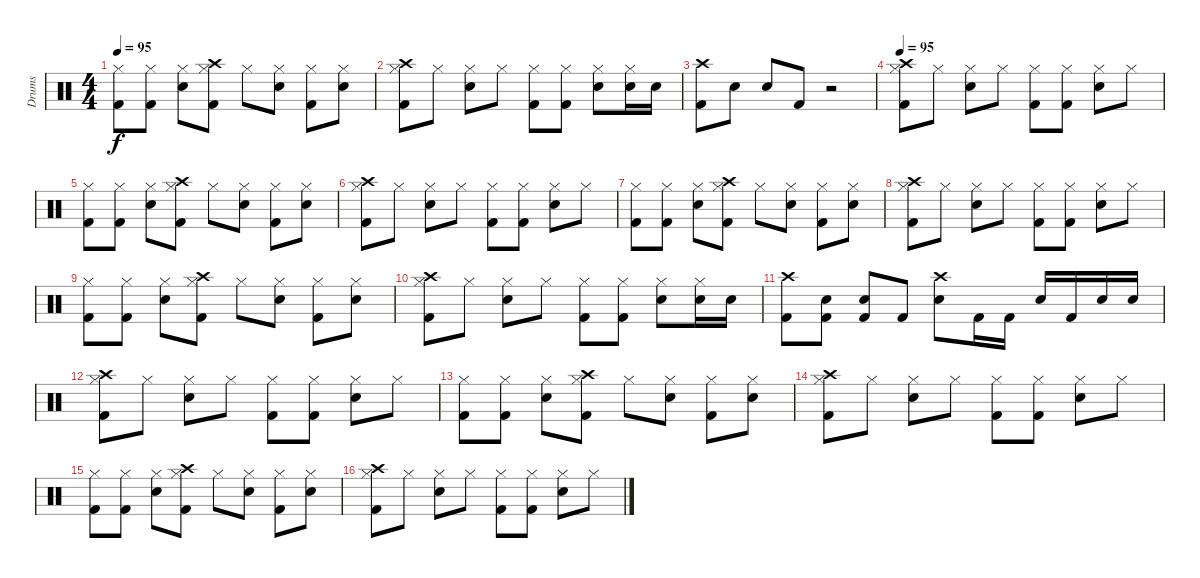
\track ("Drums" "Drums") {instrument percussion}
\staff {score}
\articulation defaults
\ts (4 4)
\tempo 95
\clef neutral
\ks c
("Hi-Hat (closed)" "Kick (hit) 2").8{dy f} ("Hi-Hat (closed)" "Kick (hit) 2").8 ("Hi-Hat (closed)" "Electric Snare (hit)").8 ("Crash high (hit)" "Hi-Hat (closed)" "Kick (hit) 2").8 "Hi-Hat (closed)".8 ("Hi-Hat (closed)" "Electric Snare (hit)").8 ("Hi-Hat (closed)" "Kick (hit) 2").8 ("Hi-Hat (closed)" "Electric Snare (hit)").8 |
("Crash high (hit)" "Hi-Hat (closed)" "Kick (hit) 2").8 "Hi-Hat (closed)".8 ("Hi-Hat (closed)" "Electric Snare (hit)").8 "Hi-Hat (closed)".8 ("Hi-Hat (closed)" "Kick (hit) 2").8 ("Hi-Hat (closed)" "Kick (hit) 2").8 ("Hi-Hat (closed)" "Electric Snare (hit)").8 ("Electric Snare (hit)" "Hi-Hat (closed)").16 "Electric Snare (hit)".16 |
("Crash high (hit)" "Kick (hit) 2").8 "Electric Snare (hit)".8 "Electric Snare (hit)".8 "Kick (hit) 2".8 r.2 |
\tempo 95
("Crash high (hit)" "Hi-Hat (closed)" "Kick (hit) 2").8 "Hi-Hat (closed)".8 ("Hi-Hat (closed)" "Electric Snare (hit)").8 "Hi-Hat (closed)".8 ("Hi-Hat (closed)" "Kick (hit) 2").8 ("Hi-Hat (closed)" "Kick (hit) 2").8 ("Hi-Hat (closed)" "Electric Snare (hit)").8 "Hi-Hat (closed)".8 |
("Hi-Hat (closed)" "Kick (hit) 2").8 ("Hi-Hat (closed)" "Kick (hit) 2").8 ("Hi-Hat (closed)" "Electric Snare (hit)").8 ("Crash high (hit)" "Hi-Hat (closed)" "Kick (hit) 2").8 "Hi-Hat (closed)".8 ("Hi-Hat (closed)" "Electric Snare (hit)").8 ("Hi-Hat (closed)" "Kick (hit) 2").8 ("Hi-Hat (closed)" "Electric Snare (hit)").8 |
("Crash high (hit)" "Hi-Hat (closed)" "Kick (hit) 2").8 "Hi-Hat (closed)".8 ("Hi-Hat (closed)" "Electric Snare (hit)").8 "Hi-Hat (closed)".8 ("Hi-Hat (closed)" "Kick (hit) 2").8 ("Hi-Hat (closed)" "Kick (hit) 2").8 ("Hi-Hat (closed)" "Electric Snare (hit)").8 "Hi-Hat (closed)".8 |
("Hi-Hat (closed)" "Kick (hit) 2").8 ("Hi-Hat (closed)" "Kick (hit) 2").8 ("Hi-Hat (closed)" "Electric Snare (hit)").8 ("Crash high (hit)" "Hi-Hat (closed)" "Kick (hit) 2").8 "Hi-Hat (closed)".8 ("Hi-Hat (closed)" "Electric Snare (hit)").8 ("Hi-Hat (closed)" "Kick (hit) 2").8 ("Hi-Hat (closed)" "Electric Snare (hit)").8 |
("Crash high (hit)" "Hi-Hat (closed)" "Kick (hit) 2").8 "Hi-Hat (closed)".8 ("Hi-Hat (closed)" "Electric Snare (hit)").8 "Hi-Hat (closed)".8 ("Hi-Hat (closed)" "Kick (hit) 2").8 ("Hi-Hat (closed)" "Kick (hit) 2").8 ("Hi-Hat (closed)" "Electric Snare (hit)").8 "Hi-Hat (closed)".8 |
("Hi-Hat (closed)" "Kick (hit) 2").8 ("Hi-Hat (closed)" "Kick (hit) 2").8 ("Hi-Hat (closed)" "Electric Snare (hit)").8 ("Crash high (hit)" "Hi-Hat (closed)" "Kick (hit) 2").8 "Hi-Hat (closed)".8 ("Hi-Hat (closed)" "Electric Snare (hit)").8 ("Hi-Hat (closed)" "Kick (hit) 2").8 ("Hi-Hat (closed)" "Electric Snare (hit)").8 |
("Crash high (hit)" "Hi-Hat (closed)" "Kick (hit) 2").8 "Hi-Hat (closed)".8 ("Hi-Hat (closed)" "Electric Snare (hit)").8 "Hi-Hat (closed)".8 ("Hi-Hat (closed)" "Kick (hit) 2").8 ("Hi-Hat (closed)" "Kick (hit) 2").8 ("Hi-Hat (closed)" "Electric Snare (hit)").8 ("Electric Snare (hit)" "Hi-Hat (closed)").16 "Electric Snare (hit)".16 |
("Crash high (hit)" "Kick (hit) 2").8 ("Electric Snare (hit)" "Kick (hit) 2").8 ("Electric Snare (hit)" "Kick (hit) 2").8 "Kick (hit) 2".8 ("Crash high (hit)" "Electric Snare (hit)").8 "Kick (hit) 2".16 "Kick (hit) 2".16 "Electric Snare (hit)".16 "Kick (hit) 2".16 "Electric Snare (hit)".16 "Electric Snare (hit)".16 |
("Crash high (hit)" "Hi-Hat (closed)" "Kick (hit) 2").8 "Hi-Hat (closed)".8 ("Hi-Hat (closed)" "Electric Snare (hit)").8 "Hi-Hat (closed)".8 ("Hi-Hat (closed)" "Kick (hit) 2").8 ("Hi-Hat (closed)" "Kick (hit) 2").8 ("Hi-Hat (closed)" "Electric Snare (hit)").8 "Hi-Hat (closed)".8 |
("Hi-Hat (closed)" "Kick (hit) 2").8 ("Hi-Hat (closed)" "Kick (hit) 2").8 ("Hi-Hat (closed)" "Electric Snare (hit)").8 ("Crash high (hit)" "Hi-Hat (closed)" "Kick (hit) 2").8 "Hi-Hat (closed)".8 ("Hi-Hat (closed)" "Electric Snare (hit)").8 ("Hi-Hat (closed)" "Kick (hit) 2").8 ("Hi-Hat (closed)" "Electric Snare (hit)").8 |
("Crash high (hit)" "Hi-Hat (closed)" "Kick (hit) 2").8 "Hi-Hat (closed)".8 ("Hi-Hat (closed)" "Electric Snare (hit)").8 "Hi-Hat (closed)".8 ("Hi-Hat (closed)" "Kick (hit) 2").8 ("Hi-Hat (closed)" "Kick (hit) 2").8 ("Hi-Hat (closed)" "Electric Snare (hit)").8 "Hi-Hat (closed)".8 |
("Hi-Hat (closed)" "Kick (hit) 2").8 ("Hi-Hat (closed)" "Kick (hit) 2").8 ("Hi-Hat (closed)" "Electric Snare (hit)").8 ("Crash high (hit)" "Hi-Hat (closed)" "Kick (hit) 2").8 "Hi-Hat (closed)".8 ("Hi-Hat (closed)" "Electric Snare (hit)").8 ("Hi-Hat (closed)" "Kick (hit) 2").8 ("Hi-Hat (closed)" "Electric Snare (hit)").8 |
("Crash high (hit)" "Hi-Hat (closed)" "Kick (hit) 2").8 "Hi-Hat (closed)".8 ("Hi-Hat (closed)" "Electric Snare (hit)").8 "Hi-Hat (closed)".8 ("Hi-Hat (closed)" "Kick (hit) 2").8 ("Hi-Hat (closed)" "Kick (hit) 2").8 ("Hi-Hat (closed)" "Electric Snare (hit)").8 "Hi-Hat (closed)".8
